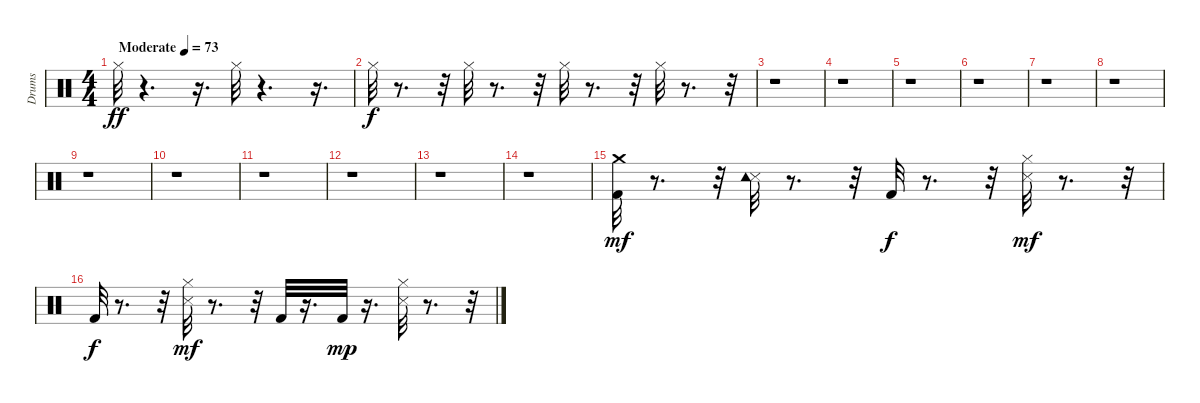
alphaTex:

\track ("Drums" "Drums") {instrument percussion}
\staff {score}
\articulation defaults
\ts (4 4)
\tempo (73 "Moderate")
\clef neutral
\ks c "Hi-Hat (closed)".32{dy ff}
r.4{d} r.16{d} "Hi-Hat (closed)".32 r.4{d} r.16{d} |
"Hi-Hat (closed)".32{dy f} r.8{d} r.32 "Hi-Hat (closed)".32 r.8{d} r.32 "Hi-Hat (closed)".32 r.8{d} r.32 "Hi-Hat (closed)".32 r.8{d} r.32 |
r.1 |
r.1 |
r.1 |
r.1 |
r.1 |
r.1 |
r.1 |
r.1 |
r.1 |
r.1 |
r.1 |
r.1 |
("Kick (hit) 2" "Crash medium (hit)").32{dy mf} r.8{d} r.32 ("Snare (side stick) 3" "Tambourine (hit)").32 r.8{d} r.32 "Kick (hit) 2".32{dy f} r.8{d} r.32 ("Hi-Hat (closed)" "Snare (side stick) 3").32{dy mf} r.8{d} r.32 |
"Kick (hit) 2".32{dy f} r.8{d} r.32 ("Hi-Hat (closed)" "Snare (side stick) 3").32{dy mf} r.8{d} r.32 "Kick (hit) 2".32 r.16{d} "Kick (hit) 2".32{dy mp} r.16{d} ("Hi-Hat (closed)" "Snare (side stick) 3").32 r.8{d} r.32
